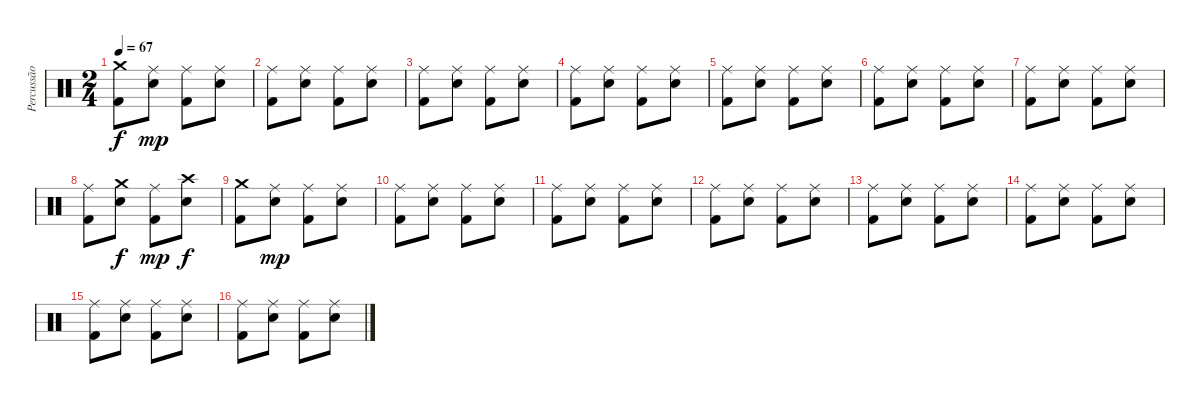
\track ("Percussão" "Percussão") {instrument percussion}
\staff {score}
\articulation defaults
\ts (2 4)
\tempo 67
\clef neutral
\ks c
("Crash medium (hit)" "Kick (hit) 2").8{dy f} ("Ride (middle)" "Snare (hit) 2").8{dy mp} ("Ride (middle)" "Kick (hit) 2").8 ("Ride (middle)" "Snare (hit) 2").8 |
("Ride (middle)" "Kick (hit) 2").8 ("Ride (middle)" "Snare (hit) 2").8 ("Ride (middle)" "Kick (hit) 2").8 ("Ride (middle)" "Snare (hit) 2").8 |
("Ride (middle)" "Kick (hit) 2").8 ("Ride (middle)" "Snare (hit) 2").8 ("Ride (middle)" "Kick (hit) 2").8 ("Ride (middle)" "Snare (hit) 2").8 |
("Ride (middle)" "Kick (hit) 2").8 ("Ride (middle)" "Snare (hit) 2").8 ("Ride (middle)" "Kick (hit) 2").8 ("Ride (middle)" "Snare (hit) 2").8 |
("Ride (middle)" "Kick (hit) 2").8 ("Ride (middle)" "Snare (hit) 2").8 ("Ride (middle)" "Kick (hit) 2").8 ("Ride (middle)" "Snare (hit) 2").8 |
("Ride (middle)" "Kick (hit) 2").8 ("Ride (middle)" "Snare (hit) 2").8 ("Ride (middle)" "Kick (hit) 2").8 ("Ride (middle)" "Snare (hit) 2").8 |
("Ride (middle)" "Kick (hit) 2").8 ("Ride (middle)" "Snare (hit) 2").8 ("Ride (middle)" "Kick (hit) 2").8 ("Ride (middle)" "Snare (hit) 2").8 |
("Ride (middle)" "Kick (hit) 2").8 ("Crash medium (hit)" "Snare (hit) 2").8{dy f} ("Ride (middle)" "Kick (hit) 2").8{dy mp} ("Crash high (hit)" "Snare (hit) 2").8{dy f} |
("Crash medium (hit)" "Kick (hit) 2").8 ("Ride (middle)" "Snare (hit) 2").8{dy mp} ("Ride (middle)" "Kick (hit) 2").8 ("Ride (middle)" "Snare (hit) 2").8 |
("Ride (middle)" "Kick (hit) 2").8 ("Ride (middle)" "Snare (hit) 2").8 ("Ride (middle)" "Kick (hit) 2").8 ("Ride (middle)" "Snare (hit) 2").8 |
("Ride (middle)" "Kick (hit) 2").8 ("Ride (middle)" "Snare (hit) 2").8 ("Ride (middle)" "Kick (hit) 2").8 ("Ride (middle)" "Snare (hit) 2").8 |
("Ride (middle)" "Kick (hit) 2").8 ("Ride (middle)" "Snare (hit) 2").8 ("Ride (middle)" "Kick (hit) 2").8 ("Ride (middle)" "Snare (hit) 2").8 |
("Ride (middle)" "Kick (hit) 2").8 ("Ride (middle)" "Snare (hit) 2").8 ("Ride (middle)" "Kick (hit) 2").8 ("Ride (middle)" "Snare (hit) 2").8 |
("Ride (middle)" "Kick (hit) 2").8 ("Ride (middle)" "Snare (hit) 2").8 ("Ride (middle)" "Kick (hit) 2").8 ("Ride (middle)" "Snare (hit) 2").8 |
("Ride (middle)" "Kick (hit) 2").8 ("Ride (middle)" "Snare (hit) 2").8 ("Ride (middle)" "Kick (hit) 2").8 ("Ride (middle)" "Snare (hit) 2").8 |
("Ride (middle)" "Kick (hit) 2").8 ("Ride (middle)" "Snare (hit) 2").8 ("Ride (middle)" "Kick (hit) 2").8 ("Ride (middle)" "Snare (hit) 2").8
